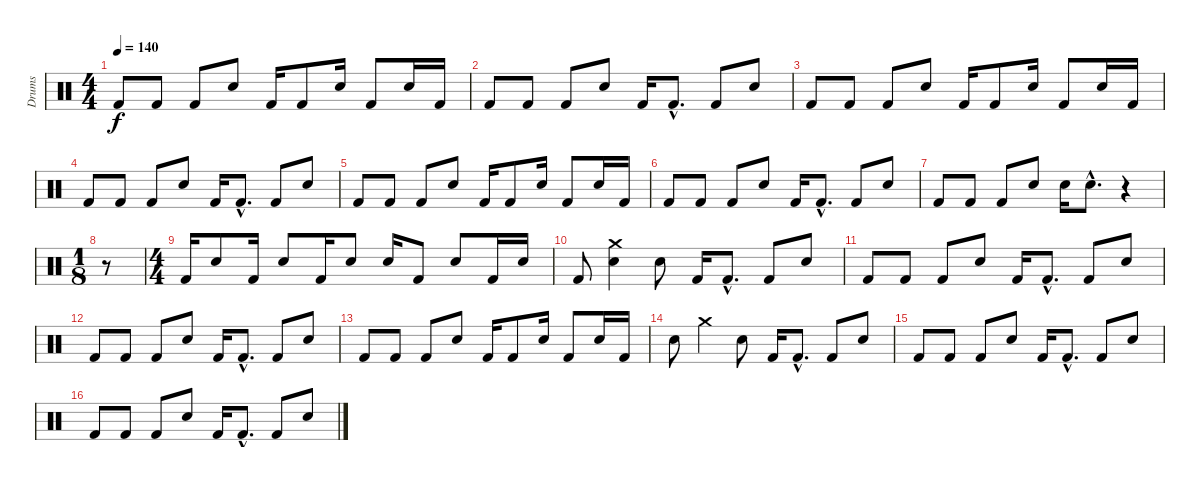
\track ("Drums" "Drums") {instrument percussion}
\staff {score}
\articulation defaults
\ts (4 4)
\tempo 140
\clef neutral
\ks c "Kick (hit) 2".8{dy f} "Kick (hit) 2".8 "Kick (hit) 2".8 "Snare (hit) 2".8 "Kick (hit) 2".16 "Kick (hit) 2".8 "Snare (hit) 2".16 "Kick (hit) 2".8 "Snare (hit) 2".16 "Kick (hit) 2".16
|
"Kick (hit) 2".8 "Kick (hit) 2".8 "Kick (hit) 2".8 "Snare (hit) 2".8 "Kick (hit) 2".16 "Kick (hit) 2"{hac}.8{d} "Kick (hit) 2".8 "Snare (hit) 2".8 |
"Kick (hit) 2".8 "Kick (hit) 2".8 "Kick (hit) 2".8 "Snare (hit) 2".8 "Kick (hit) 2".16 "Kick (hit) 2".8 "Snare (hit) 2".16 "Kick (hit) 2".8 "Snare (hit) 2".16 "Kick (hit) 2".16 |
"Kick (hit) 2".8 "Kick (hit) 2".8 "Kick (hit) 2".8 "Snare (hit) 2".8 "Kick (hit) 2".16 "Kick (hit) 2"{hac}.8{d} "Kick (hit) 2".8 "Snare (hit) 2".8 |
"Kick (hit) 2".8 "Kick (hit) 2".8 "Kick (hit) 2".8 "Snare (hit) 2".8 "Kick (hit) 2".16 "Kick (hit) 2".8 "Snare (hit) 2".16 "Kick (hit) 2".8 "Snare (hit) 2".16 "Kick (hit) 2".16 |
"Kick (hit) 2".8 "Kick (hit) 2".8 "Kick (hit) 2".8 "Snare (hit) 2".8 "Kick (hit) 2".16 "Kick (hit) 2"{hac}.8{d} "Kick (hit) 2".8 "Snare (hit) 2".8 |
"Kick (hit) 2".8 "Kick (hit) 2".8 "Kick (hit) 2".8 "Snare (hit) 2".8 "Snare (hit) 2".16 "Snare (hit) 2"{hac}.8{d} r.4 |
\ts (1 8)
r.8 |
\ts (4 4)
"Kick (hit) 2".16 "Snare (hit) 2".8 "Kick (hit) 2".16 "Snare (hit) 2".8 "Kick (hit) 2".16 "Snare (hit) 2".8 "Snare (hit) 2".16 "Kick (hit) 2".8 "Snare (hit) 2".8 "Kick (hit) 2".16 "Snare (hit) 2".16 |
"Kick (hit) 2".8 ("Crash medium (hit)" "Snare (hit) 2").4 "Snare (hit) 2".8 "Kick (hit) 2".16 "Kick (hit) 2"{hac}.8{d} "Kick (hit) 2".8 "Snare (hit) 2".8 |
"Kick (hit) 2".8 "Kick (hit) 2".8 "Kick (hit) 2".8 "Snare (hit) 2".8 "Kick (hit) 2".16 "Kick (hit) 2"{hac}.8{d} "Kick (hit) 2".8 "Snare (hit) 2".8 |
"Kick (hit) 2".8 "Kick (hit) 2".8 "Kick (hit) 2".8 "Snare (hit) 2".8 "Kick (hit) 2".16 "Kick (hit) 2"{hac}.8{d} "Kick (hit) 2".8 "Snare (hit) 2".8 |
"Kick (hit) 2".8 "Kick (hit) 2".8 "Kick (hit) 2".8 "Snare (hit) 2".8 "Kick (hit) 2".16 "Kick (hit) 2".8 "Snare (hit) 2".16 "Kick (hit) 2".8 "Snare (hit) 2".16 "Kick (hit) 2".16 |
"Snare (hit) 2".8 "Crash medium (hit)".4 "Snare (hit) 2".8 "Kick (hit) 2".16 "Kick (hit) 2"{hac}.8{d} "Kick (hit) 2".8 "Snare (hit) 2".8 |
"Kick (hit) 2".8 "Kick (hit) 2".8 "Kick (hit) 2".8 "Snare (hit) 2".8 "Kick (hit) 2".16 "Kick (hit) 2"{hac}.8{d} "Kick (hit) 2".8 "Snare (hit) 2".8 |
"Kick (hit) 2".8 "Kick (hit) 2".8 "Kick (hit) 2".8 "Snare (hit) 2".8 "Kick (hit) 2".16 "Kick (hit) 2"{hac}.8{d} "Kick (hit) 2".8 "Snare (hit) 2".8
